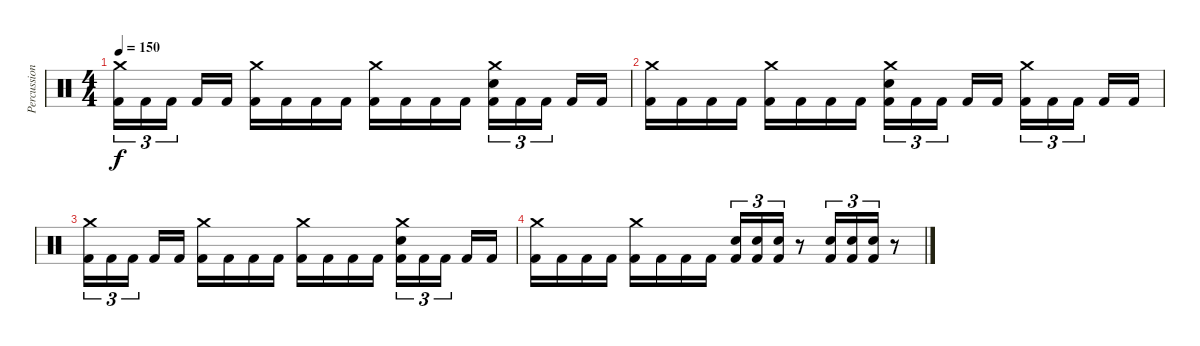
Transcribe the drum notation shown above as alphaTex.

\track ("Percussion" "Percussion") {instrument percussion}
\staff {score}
\articulation defaults
\ts (4 4)
\tempo 150
\clef neutral
\ks c
("Crash medium (hit)" "Kick (hit) 2").16{tu (3 2) dy f} "Kick (hit) 2".16{tu (3 2)} "Kick (hit) 2".16{tu (3 2) beam splitsecondary} "Kick (hit) 2".16 "Kick (hit) 2".16 ("Crash medium (hit)" "Kick (hit) 2").16 "Kick (hit) 2".16 "Kick (hit) 2".16 "Kick (hit) 2".16 ("Crash medium (hit)" "Kick (hit) 2").16 "Kick (hit) 2".16 "Kick (hit) 2".16 "Kick (hit) 2".16 ("Crash medium (hit)" "Electric Snare (hit)" "Kick (hit) 2").16{tu (3 2)} "Kick (hit) 2".16{tu (3 2)} "Kick (hit) 2".16{tu (3 2) beam splitsecondary} "Kick (hit) 2".16 "Kick (hit) 2".16 |
("Crash medium (hit)" "Kick (hit) 2").16 "Kick (hit) 2".16 "Kick (hit) 2".16 "Kick (hit) 2".16 ("Crash medium (hit)" "Kick (hit) 2").16 "Kick (hit) 2".16 "Kick (hit) 2".16 "Kick (hit) 2".16 ("Crash medium (hit)" "Electric Snare (hit)" "Kick (hit) 2").16{tu (3 2)} "Kick (hit) 2".16{tu (3 2)} "Kick (hit) 2".16{tu (3 2) beam splitsecondary} "Kick (hit) 2".16 "Kick (hit) 2".16 ("Crash medium (hit)" "Kick (hit) 2").16{tu (3 2)} "Kick (hit) 2".16{tu (3 2)} "Kick (hit) 2".16{tu (3 2) beam splitsecondary} "Kick (hit) 2".16 "Kick (hit) 2".16 |
("Crash medium (hit)" "Kick (hit) 2").16{tu (3 2)} "Kick (hit) 2".16{tu (3 2)} "Kick (hit) 2".16{tu (3 2) beam splitsecondary} "Kick (hit) 2".16 "Kick (hit) 2".16 ("Crash medium (hit)" "Kick (hit) 2").16 "Kick (hit) 2".16 "Kick (hit) 2".16 "Kick (hit) 2".16 ("Crash medium (hit)" "Kick (hit) 2").16 "Kick (hit) 2".16 "Kick (hit) 2".16 "Kick (hit) 2".16 ("Crash medium (hit)" "Electric Snare (hit)" "Kick (hit) 2").16{tu (3 2)} "Kick (hit) 2".16{tu (3 2)} "Kick (hit) 2".16{tu (3 2) beam splitsecondary} "Kick (hit) 2".16 "Kick (hit) 2".16 |
("Crash medium (hit)" "Kick (hit) 2").16 "Kick (hit) 2".16 "Kick (hit) 2".16 "Kick (hit) 2".16 ("Crash medium (hit)" "Kick (hit) 2").16 "Kick (hit) 2".16 "Kick (hit) 2".16 "Kick (hit) 2".16 ("Electric Snare (hit)" "Kick (hit) 2").16{tu (3 2)} ("Electric Snare (hit)" "Kick (hit) 2").16{tu (3 2)} ("Electric Snare (hit)" "Kick (hit) 2").16{tu (3 2)} r.8 ("Electric Snare (hit)" "Kick (hit) 2").16{tu (3 2)} ("Electric Snare (hit)" "Kick (hit) 2").16{tu (3 2)} ("Electric Snare (hit)" "Kick (hit) 2").16{tu (3 2)} r.8
